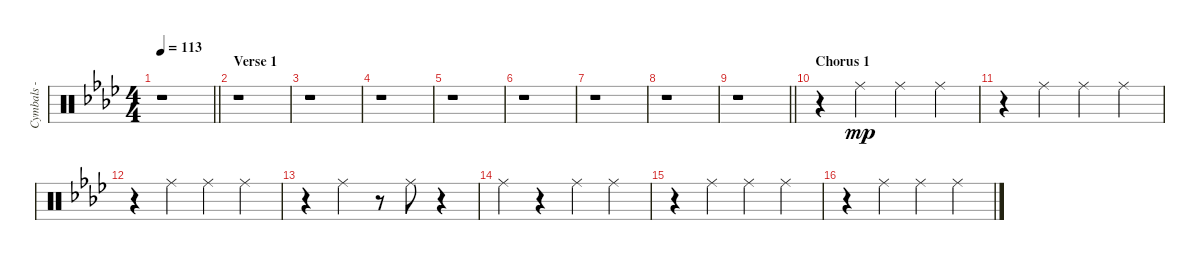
\track ("Cymbals - ride" "Cymbals - ") {instrument percussion}
\staff {score}
\articulation defaults
\ts (4 4)
\tempo 113
\clef neutral
\barLineRight lightlight
\ks fminor
r.1{dy mp} |
\section ("" "Verse 1")
r.1 |
r.1 |
r.1 |
r.1 |
r.1 |
r.1 |
r.1 |
\barLineRight lightlight
r.1{volume 7 balance 5} |
\section ("" "Chorus 1")
r.4 "Ride (middle)".4 "Ride (middle)".4 "Ride (middle)".4 |
r.4 "Ride (middle)".4 "Ride (middle)".4 "Ride (middle)".4 |
r.4 "Ride (middle)".4 "Ride (middle)".4 "Ride (middle)".4 |
r.4 "Ride (middle)".4 r.8 "Ride (middle)".8 r.4 |
"Ride (middle)".4 r.4 "Ride (middle)".4 "Ride (middle)".4 |
r.4 "Ride (middle)".4 "Ride (middle)".4 "Ride (middle)".4 |
r.4 "Ride (middle)".4 "Ride (middle)".4 "Ride (middle)".4
